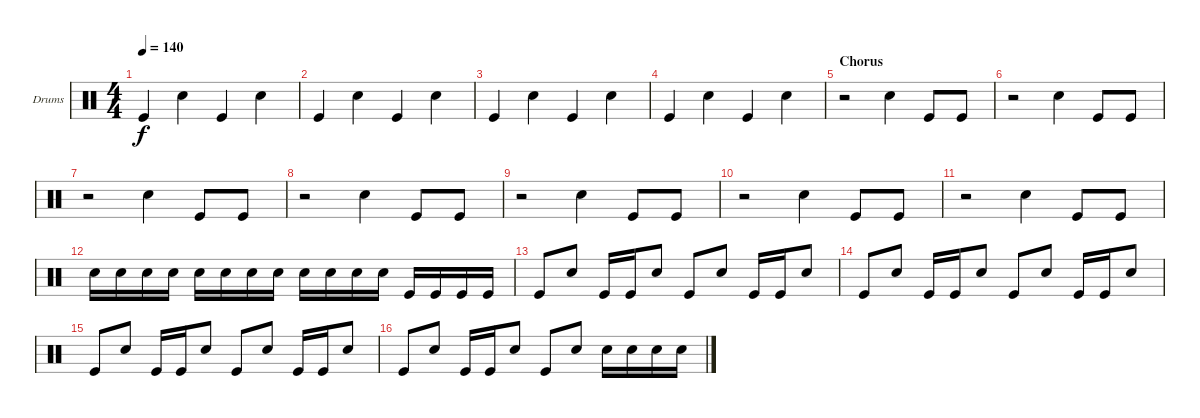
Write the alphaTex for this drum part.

\bracketExtendMode groupsimilarinstruments
\firstSystemTrackNameOrientation horizontal
\otherSystemsTrackNameOrientation horizontal
\track ("Drumkit" "Drums") {instrument percussion}
\staff {score}
\articulation defaults
\ts (4 4)
\tempo 140
\clef neutral
\ks c "Kick (hit)".4{dy f} "Snare (hit) 2".4 "Kick (hit)".4 "Snare (hit) 2".4
|
"Kick (hit)".4 "Snare (hit) 2".4 "Kick (hit)".4 "Snare (hit) 2".4 |
"Kick (hit)".4 "Snare (hit) 2".4 "Kick (hit)".4 "Snare (hit) 2".4 |
"Kick (hit)".4 "Snare (hit) 2".4 "Kick (hit)".4 "Snare (hit) 2".4 |
\section ("" "Chorus")
r.2 "Snare (hit) 2".4 "Kick (hit)".8 "Kick (hit)".8 |
r.2 "Snare (hit) 2".4 "Kick (hit)".8 "Kick (hit)".8 |
r.2 "Snare (hit) 2".4 "Kick (hit)".8 "Kick (hit)".8 |
r.2 "Snare (hit) 2".4 "Kick (hit)".8 "Kick (hit)".8 |
r.2 "Snare (hit) 2".4 "Kick (hit)".8 "Kick (hit)".8 |
r.2 "Snare (hit) 2".4 "Kick (hit)".8 "Kick (hit)".8 |
r.2 "Snare (hit) 2".4 "Kick (hit)".8 "Kick (hit)".8 |
"Snare (hit) 2".16 "Snare (hit) 2".16 "Snare (hit) 2".16 "Snare (hit) 2".16 "Snare (hit) 2".16 "Snare (hit) 2".16 "Snare (hit) 2".16 "Snare (hit) 2".16 "Snare (hit) 2".16 "Snare (hit) 2".16 "Snare (hit) 2".16 "Snare (hit) 2".16 "Kick (hit)".16 "Kick (hit)".16 "Kick (hit)".16 "Kick (hit)".16 |
"Kick (hit)".8 "Snare (hit) 2".8 "Kick (hit)".16 "Kick (hit)".16 "Snare (hit) 2".8 "Kick (hit)".8 "Snare (hit) 2".8 "Kick (hit)".16 "Kick (hit)".16 "Snare (hit) 2".8 |
"Kick (hit)".8 "Snare (hit) 2".8 "Kick (hit)".16 "Kick (hit)".16 "Snare (hit) 2".8 "Kick (hit)".8 "Snare (hit) 2".8 "Kick (hit)".16 "Kick (hit)".16 "Snare (hit) 2".8 |
"Kick (hit)".8 "Snare (hit) 2".8 "Kick (hit)".16 "Kick (hit)".16 "Snare (hit) 2".8 "Kick (hit)".8 "Snare (hit) 2".8 "Kick (hit)".16 "Kick (hit)".16 "Snare (hit) 2".8 |
"Kick (hit)".8 "Snare (hit) 2".8 "Kick (hit)".16 "Kick (hit)".16 "Snare (hit) 2".8 "Kick (hit)".8 "Snare (hit) 2".8 "Snare (hit) 2".16 "Snare (hit) 2".16 "Snare (hit) 2".16 "Snare (hit) 2".16
